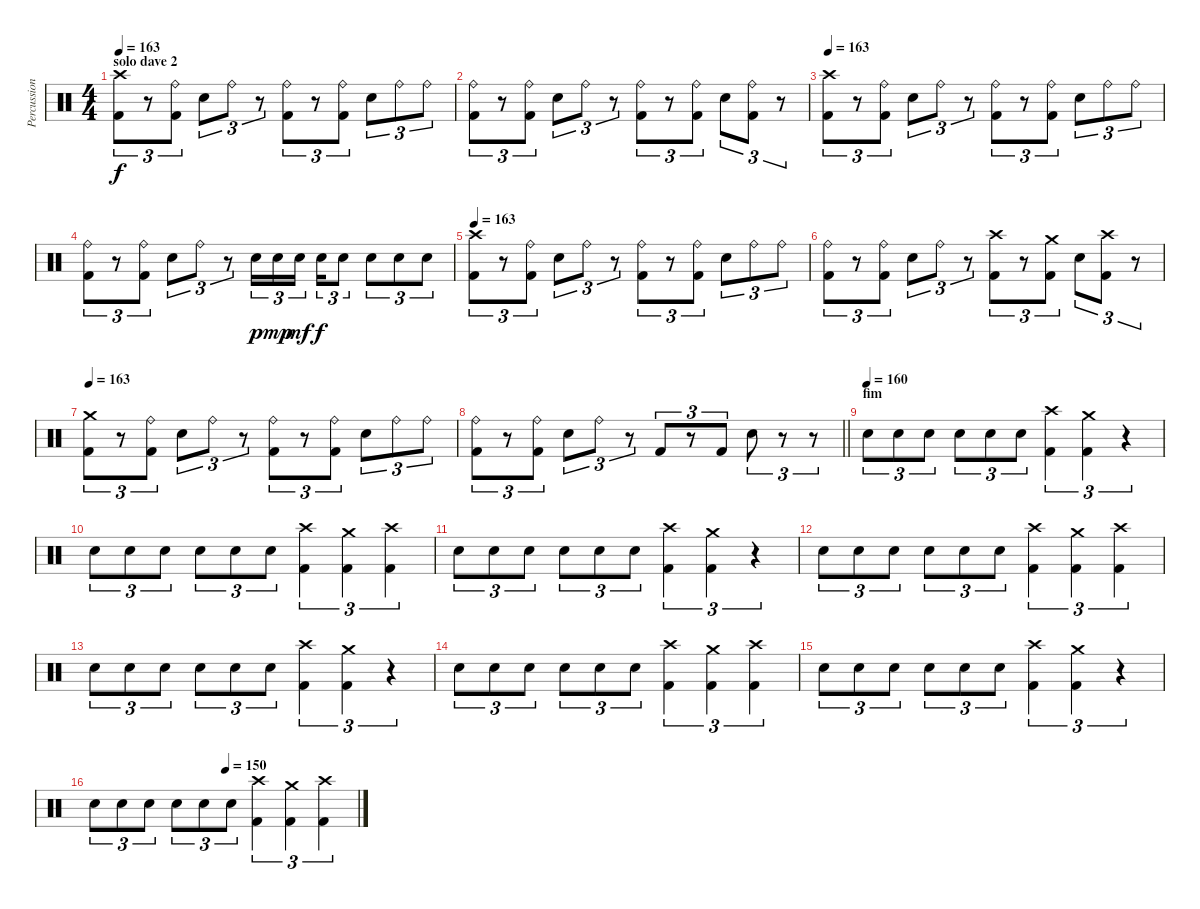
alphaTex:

\track ("Percussion" "Percussion") {instrument percussion}
\staff {score}
\articulation defaults
\ts (4 4)
\section ("" "solo dave 2")
\tempo 163
\clef neutral
\ks c
("Crash high (hit)" "Kick (hit) 2").8{tu (3 2) dy f} r.8{tu (3 2)} ("Ride (bell)" "Kick (hit) 2").8{tu (3 2)} "Snare (hit) 2".8{tu (3 2)} "Ride (bell)".8{tu (3 2)} r.8{tu (3 2)} ("Ride (bell)" "Kick (hit) 2").8{tu (3 2)} r.8{tu (3 2)} ("Ride (bell)" "Kick (hit) 2").8{tu (3 2)} "Snare (hit) 2".8{tu (3 2)} "Ride (bell)".8{tu (3 2)} "Ride (bell)".8{tu (3 2)} |
("Ride (bell)" "Kick (hit) 2").8{tu (3 2)} r.8{tu (3 2)} ("Ride (bell)" "Kick (hit) 2").8{tu (3 2)} "Snare (hit) 2".8{tu (3 2)} "Ride (bell)".8{tu (3 2)} r.8{tu (3 2)} ("Ride (bell)" "Kick (hit) 2").8{tu (3 2)} r.8{tu (3 2)} ("Ride (bell)" "Kick (hit) 2").8{tu (3 2)} "Snare (hit) 2".8{tu (3 2)} ("Ride (bell)" "Kick (hit) 2").8{tu (3 2)} r.8{tu (3 2)} |
\tempo 163
("Crash high (hit)" "Kick (hit) 2").8{tu (3 2)} r.8{tu (3 2)} ("Ride (bell)" "Kick (hit) 2").8{tu (3 2)} "Snare (hit) 2".8{tu (3 2)} "Ride (bell)".8{tu (3 2)} r.8{tu (3 2)} ("Ride (bell)" "Kick (hit) 2").8{tu (3 2)} r.8{tu (3 2)} ("Ride (bell)" "Kick (hit) 2").8{tu (3 2)} "Snare (hit) 2".8{tu (3 2)} "Ride (bell)".8{tu (3 2)} "Ride (bell)".8{tu (3 2)} |
("Ride (bell)" "Kick (hit) 2").8{tu (3 2)} r.8{tu (3 2)} ("Ride (bell)" "Kick (hit) 2").8{tu (3 2)} "Snare (hit) 2".8{tu (3 2)} "Ride (bell)".8{tu (3 2)} r.8{tu (3 2)} "Snare (hit) 2".16{tu (3 2) dy p} "Snare (hit) 2".16{tu (3 2) dy mp} "Snare (hit) 2".16{tu (3 2) dy mf beam splitsecondary} "Snare (hit) 2".16{tu (3 2) dy f} "Snare (hit) 2".8{tu (3 2)} "Snare (hit) 2".8{tu (3 2)} "Snare (hit) 2".8{tu (3 2)} "Snare (hit) 2".8{tu (3 2)} |
\tempo 163
("Crash high (hit)" "Kick (hit) 2").8{tu (3 2)} r.8{tu (3 2)} ("Ride (bell)" "Kick (hit) 2").8{tu (3 2)} "Snare (hit) 2".8{tu (3 2)} "Ride (bell)".8{tu (3 2)} r.8{tu (3 2)} ("Ride (bell)" "Kick (hit) 2").8{tu (3 2)} r.8{tu (3 2)} ("Ride (bell)" "Kick (hit) 2").8{tu (3 2)} "Snare (hit) 2".8{tu (3 2)} "Ride (bell)".8{tu (3 2)} "Ride (bell)".8{tu (3 2)} |
("Ride (bell)" "Kick (hit) 2").8{tu (3 2)} r.8{tu (3 2)} ("Ride (bell)" "Kick (hit) 2").8{tu (3 2)} "Snare (hit) 2".8{tu (3 2)} "Ride (bell)".8{tu (3 2)} r.8{tu (3 2)} ("Crash high (hit)" "Kick (hit) 2").8{tu (3 2)} r.8{tu (3 2)} ("Crash medium (hit)" "Kick (hit) 2").8{tu (3 2)} "Snare (hit) 2".8{tu (3 2)} ("Crash high (hit)" "Kick (hit) 2").8{tu (3 2)} r.8{tu (3 2)} |
\tempo 163
("Crash medium (hit)" "Kick (hit) 2").8{tu (3 2)} r.8{tu (3 2)} ("Ride (bell)" "Kick (hit) 2").8{tu (3 2)} "Snare (hit) 2".8{tu (3 2)} "Ride (bell)".8{tu (3 2)} r.8{tu (3 2)} ("Ride (bell)" "Kick (hit) 2").8{tu (3 2)} r.8{tu (3 2)} ("Ride (bell)" "Kick (hit) 2").8{tu (3 2)} "Snare (hit) 2".8{tu (3 2)} "Ride (bell)".8{tu (3 2)} "Ride (bell)".8{tu (3 2)} |
\barLineRight lightlight
("Ride (bell)" "Kick (hit) 2").8{tu (3 2)} r.8{tu (3 2)} ("Ride (bell)" "Kick (hit) 2").8{tu (3 2)} "Snare (hit) 2".8{tu (3 2)} "Ride (bell)".8{tu (3 2)} r.8{tu (3 2)} "Kick (hit) 2".8{tu (3 2)} r.8{tu (3 2)} "Kick (hit) 2".8{tu (3 2)} "Snare (hit) 2".8{tu (3 2)} r.8{tu (3 2)} r.8{tu (3 2)} |
\section ("" "fim")
\tempo (160)
"Snare (hit) 2".8{tu (3 2)} "Snare (hit) 2".8{tu (3 2)} "Snare (hit) 2".8{tu (3 2)} "Snare (hit) 2".8{tu (3 2)} "Snare (hit) 2".8{tu (3 2)} "Snare (hit) 2".8{tu (3 2)} ("Crash high (hit)" "Kick (hit) 2").4{tu (3 2)} ("Crash medium (hit)" "Kick (hit) 2").4{tu (3 2)} r.4{tu (3 2)} |
"Snare (hit) 2".8{tu (3 2)} "Snare (hit) 2".8{tu (3 2)} "Snare (hit) 2".8{tu (3 2)} "Snare (hit) 2".8{tu (3 2)} "Snare (hit) 2".8{tu (3 2)} "Snare (hit) 2".8{tu (3 2)} ("Crash high (hit)" "Kick (hit) 2").4{tu (3 2)} ("Crash medium (hit)" "Kick (hit) 2").4{tu (3 2)} ("Crash high (hit)" "Kick (hit) 2").4{tu (3 2)} |
"Snare (hit) 2".8{tu (3 2)} "Snare (hit) 2".8{tu (3 2)} "Snare (hit) 2".8{tu (3 2)} "Snare (hit) 2".8{tu (3 2)} "Snare (hit) 2".8{tu (3 2)} "Snare (hit) 2".8{tu (3 2)} ("Crash high (hit)" "Kick (hit) 2").4{tu (3 2)} ("Crash medium (hit)" "Kick (hit) 2").4{tu (3 2)} r.4{tu (3 2)} |
"Snare (hit) 2".8{tu (3 2)} "Snare (hit) 2".8{tu (3 2)} "Snare (hit) 2".8{tu (3 2)} "Snare (hit) 2".8{tu (3 2)} "Snare (hit) 2".8{tu (3 2)} "Snare (hit) 2".8{tu (3 2)} ("Crash high (hit)" "Kick (hit) 2").4{tu (3 2)} ("Crash medium (hit)" "Kick (hit) 2").4{tu (3 2)} ("Crash high (hit)" "Kick (hit) 2").4{tu (3 2)} |
"Snare (hit) 2".8{tu (3 2)} "Snare (hit) 2".8{tu (3 2)} "Snare (hit) 2".8{tu (3 2)} "Snare (hit) 2".8{tu (3 2)} "Snare (hit) 2".8{tu (3 2)} "Snare (hit) 2".8{tu (3 2)} ("Crash high (hit)" "Kick (hit) 2").4{tu (3 2)} ("Crash medium (hit)" "Kick (hit) 2").4{tu (3 2)} r.4{tu (3 2)} |
"Snare (hit) 2".8{tu (3 2)} "Snare (hit) 2".8{tu (3 2)} "Snare (hit) 2".8{tu (3 2)} "Snare (hit) 2".8{tu (3 2)} "Snare (hit) 2".8{tu (3 2)} "Snare (hit) 2".8{tu (3 2)} ("Crash high (hit)" "Kick (hit) 2").4{tu (3 2)} ("Crash medium (hit)" "Kick (hit) 2").4{tu (3 2)} ("Crash high (hit)" "Kick (hit) 2").4{tu (3 2)} |
"Snare (hit) 2".8{tu (3 2)} "Snare (hit) 2".8{tu (3 2)} "Snare (hit) 2".8{tu (3 2)} "Snare (hit) 2".8{tu (3 2)} "Snare (hit) 2".8{tu (3 2)} "Snare (hit) 2".8{tu (3 2)} ("Crash high (hit)" "Kick (hit) 2").4{tu (3 2)} ("Crash medium (hit)" "Kick (hit) 2").4{tu (3 2)} r.4{tu (3 2)} |
\tempo (150 0.5)
"Snare (hit) 2".8{tu (3 2)} "Snare (hit) 2".8{tu (3 2)} "Snare (hit) 2".8{tu (3 2)} "Snare (hit) 2".8{tu (3 2)} "Snare (hit) 2".8{tu (3 2)} "Snare (hit) 2".8{tu (3 2)} ("Crash high (hit)" "Kick (hit) 2").4{tu (3 2)} ("Crash medium (hit)" "Kick (hit) 2").4{tu (3 2)} ("Crash high (hit)" "Kick (hit) 2").4{tu (3 2)}
